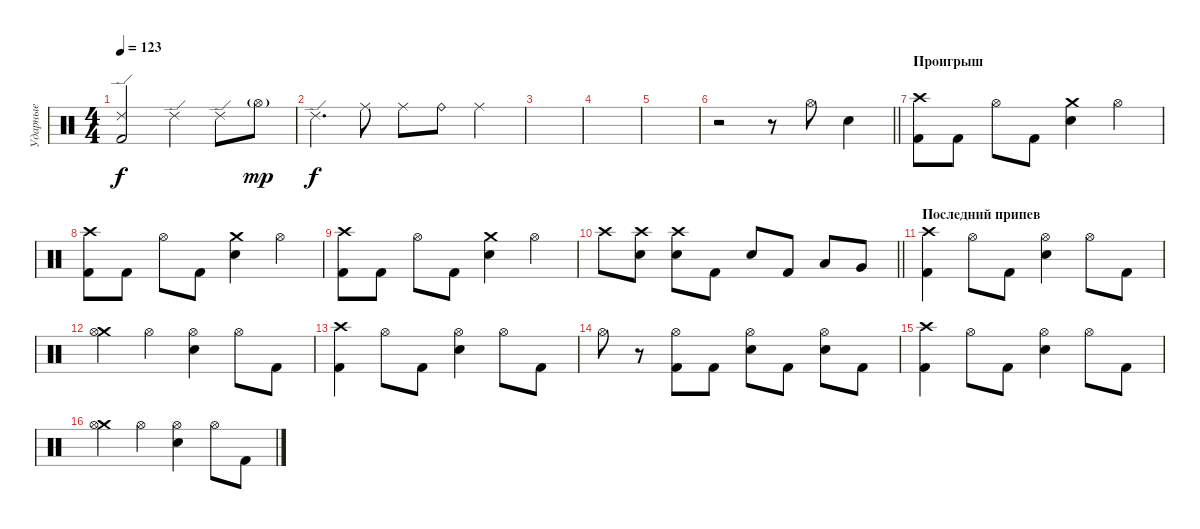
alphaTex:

\track ("Ударные" "Ударные") {instrument percussion}
\staff {score}
\articulation defaults
\ts (4 4)
\tempo 123
\clef neutral
\ks c
("Kick (hit) 2" "Ride (edge) 2").2{dy f} "Ride (edge) 2".4 "Ride (edge) 2".8 "Hi-Hat (open)"{g}.8{dy mp} |
"Ride (edge) 2".4{d dy f} "Ride (middle)".8 "Ride (middle)".8 "Ride (bell)".8 "Ride (middle)".4 |
|
|
|
\barLineRight lightlight
r.2 r.8 "Hi-Hat (open)".8 "Electric Snare (hit)".4 |
\section ("" "Проигрыш")
("Kick (hit) 2" "Crash high (hit)").8 "Kick (hit) 2".8 "Hi-Hat (open)".8 "Kick (hit) 2".8 ("Electric Snare (hit)" "Crash medium (hit)").4 "Hi-Hat (open)".4 |
("Kick (hit) 2" "Crash high (hit)").8 "Kick (hit) 2".8 "Hi-Hat (open)".8 "Kick (hit) 2".8 ("Electric Snare (hit)" "Crash medium (hit)").4 "Hi-Hat (open)".4 |
("Kick (hit) 2" "Crash high (hit)").8 "Kick (hit) 2".8 "Hi-Hat (open)".8 "Kick (hit) 2".8 ("Electric Snare (hit)" "Crash medium (hit)").4 "Hi-Hat (open)".4 |
\barLineRight lightlight "Crash high (hit)".8
("Electric Snare (hit)" "Crash high (hit)").8 ("Electric Snare (hit)" "Crash high (hit)").8 "Kick (hit) 2".8 "Electric Snare (hit)".8 "Kick (hit) 2".8 "Low Tom (hit)".8 "Very Low Tom (hit)".8 |
\section ("" "Последний припев")
("Kick (hit) 2" "Crash high (hit)").4 "Hi-Hat (open)".8 "Kick (hit) 2".8 ("Electric Snare (hit)" "Hi-Hat (open)").4 "Hi-Hat (open)".8 "Kick (hit) 2".8 |
("Crash medium (hit)" "Hi-Hat (open)").4 "Hi-Hat (open)".4 ("Electric Snare (hit)" "Hi-Hat (open)").4 "Hi-Hat (open)".8 "Kick (hit) 2".8 |
("Kick (hit) 2" "Crash high (hit)").4 "Hi-Hat (open)".8 "Kick (hit) 2".8 ("Electric Snare (hit)" "Hi-Hat (open)").4 "Hi-Hat (open)".8 "Kick (hit) 2".8 |
"Hi-Hat (open)".8 r.8 ("Kick (hit) 2" "Hi-Hat (open)").8 "Kick (hit) 2".8 ("Electric Snare (hit)" "Hi-Hat (open)").8 "Kick (hit) 2".8 ("Electric Snare (hit)" "Hi-Hat (open)").8 "Kick (hit) 2".8 |
("Kick (hit) 2" "Crash high (hit)").4 "Hi-Hat (open)".8 "Kick (hit) 2".8 ("Electric Snare (hit)" "Hi-Hat (open)").4 "Hi-Hat (open)".8 "Kick (hit) 2".8 |
("Crash medium (hit)" "Hi-Hat (open)").4 "Hi-Hat (open)".4 ("Electric Snare (hit)" "Hi-Hat (open)").4 "Hi-Hat (open)".8 "Kick (hit) 2".8
